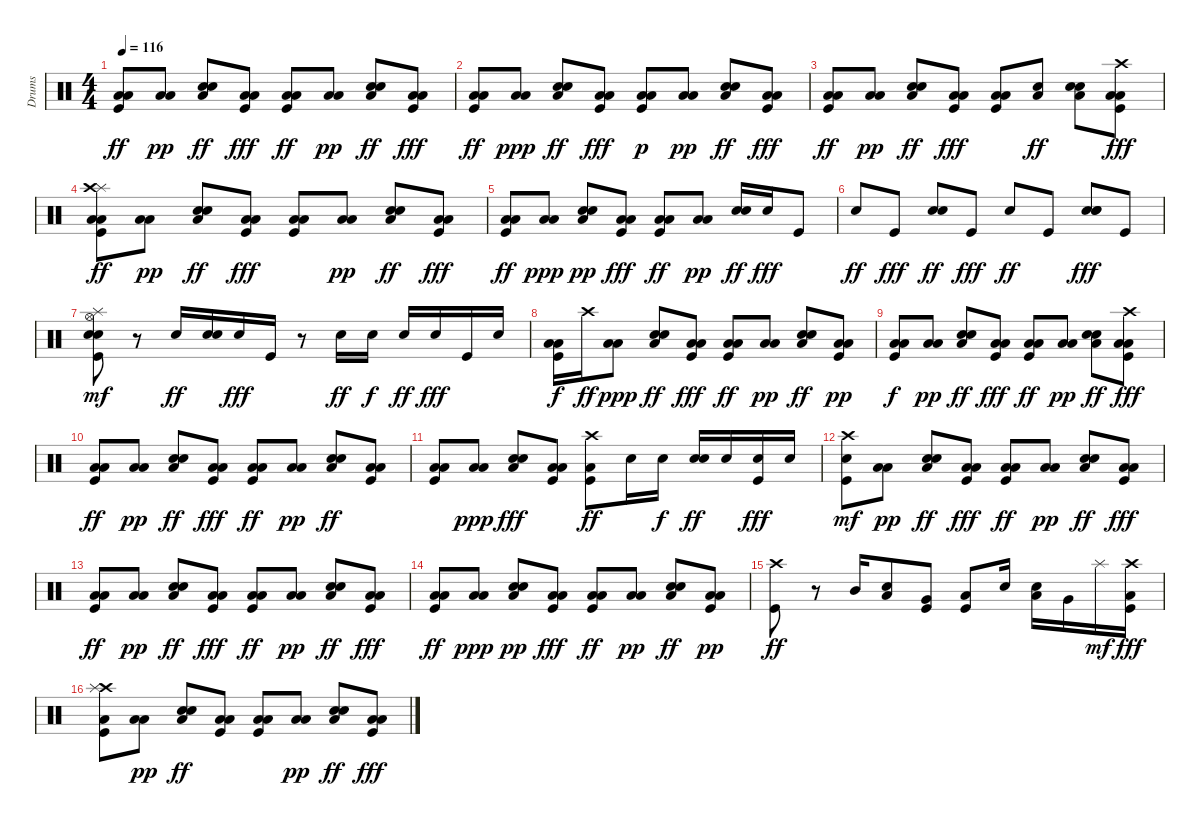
\track ("Drums" "Drums") {instrument percussion}
\staff {score}
\articulation defaults
\ts (4 4)
\tempo 116
\clef neutral
\ks c
("Low Tom (hit)" "Low Floor Tom (hit)" "Kick (hit)").8{dy ff} ("Low Tom (hit)" "Low Floor Tom (hit)").8{dy pp} ("Low Floor Tom (hit)" "Hand Clap (hit)" "Snare (hit) 2").8{dy ff} ("Low Tom (hit)" "Low Floor Tom (hit)" "Kick (hit)").8{dy fff} ("Low Tom (hit)" "Low Floor Tom (hit)" "Kick (hit)").8{dy ff} ("Low Floor Tom (hit)" "Low Tom (hit)").8{dy pp} ("Low Floor Tom (hit)" "Hand Clap (hit)" "Snare (hit) 2").8{dy ff} ("Low Tom (hit)" "Low Floor Tom (hit)" "Kick (hit)").8{dy fff} |
("Low Tom (hit)" "Low Floor Tom (hit)" "Kick (hit)").8{dy ff} ("Low Floor Tom (hit)" "Low Tom (hit)").8{dy ppp} ("Low Floor Tom (hit)" "Hand Clap (hit)" "Snare (hit) 2").8{dy ff} ("Low Tom (hit)" "Low Floor Tom (hit)" "Kick (hit)").8{dy fff} ("Kick (hit)" "Low Tom (hit)" "Low Floor Tom (hit)").8{dy p} ("Low Tom (hit)" "Low Floor Tom (hit)").8{dy pp} ("Low Floor Tom (hit)" "Hand Clap (hit)" "Snare (hit) 2").8{dy ff} ("Low Tom (hit)" "Low Floor Tom (hit)" "Kick (hit)").8{dy fff} |
("Low Tom (hit)" "Low Floor Tom (hit)" "Kick (hit)").8{dy ff} ("Low Tom (hit)" "Low Floor Tom (hit)").8{dy pp} ("Hand Clap (hit)" "Low Floor Tom (hit)" "Snare (hit) 2").8{dy ff} ("Low Tom (hit)" "Low Floor Tom (hit)" "Kick (hit)").8{dy fff} ("Low Tom (hit)" "Low Floor Tom (hit)" "Kick (hit)").8 ("Low Floor Tom (hit)" "Snare (hit) 2").8{dy ff} ("Low Floor Tom (hit)" "Hand Clap (hit)" "Snare (hit) 2").8 ("Crash high (hit)" "Low Tom (hit)" "Low Floor Tom (hit)" "Kick (hit)").8{dy fff} |
("Splash (hit)" "Crash high (hit)" "Low Tom (hit)" "Low Floor Tom (hit)" "Kick (hit)").8{dy ff} ("Low Tom (hit)" "Low Floor Tom (hit)").8{dy pp} ("Hand Clap (hit)" "Low Floor Tom (hit)" "Snare (hit) 2").8{dy ff} ("Low Tom (hit)" "Low Floor Tom (hit)" "Kick (hit)").8{dy fff} ("Low Tom (hit)" "Low Floor Tom (hit)" "Kick (hit)").8 ("Low Floor Tom (hit)" "Low Tom (hit)").8{dy pp} ("Low Floor Tom (hit)" "Hand Clap (hit)" "Snare (hit) 2").8{dy ff} ("Low Tom (hit)" "Low Floor Tom (hit)" "Kick (hit)").8{dy fff} |
("Low Tom (hit)" "Low Floor Tom (hit)" "Kick (hit)").8{dy ff} ("Low Floor Tom (hit)" "Low Tom (hit)").8{dy ppp} ("Hand Clap (hit)" "Snare (hit) 2" "Low Floor Tom (hit)").8{dy pp} ("Low Tom (hit)" "Low Floor Tom (hit)" "Kick (hit)").8{dy fff} ("Low Tom (hit)" "Low Floor Tom (hit)" "Kick (hit)").8{dy ff} ("Low Tom (hit)" "Low Floor Tom (hit)").8{dy pp} ("Hand Clap (hit)" "Snare (hit) 2").16{dy ff} "Snare (hit) 2".16{dy fff} "Kick (hit)".8 |
"Snare (hit) 2".8{dy ff} "Kick (hit)".8{dy fff} ("Hand Clap (hit)" "Snare (hit) 2").8{dy ff} "Kick (hit)".8{dy fff} "Snare (hit) 2".8{dy ff} "Kick (hit)".8 ("Snare (hit) 2" "Hand Clap (hit)" "Snare (hit) 2").8{dy fff} "Kick (hit)".8 |
("Electric Snare (hit)" "Snare (hit) 2" "Kick (hit)" "Hi-Hat (open)" "Splash (hit)").8{dy mf} r.8 "Snare (hit) 2".16{dy ff} ("Snare (hit) 2" "Hand Clap (hit)").16 "Snare (hit) 2".16{dy fff} "Kick (hit)".16 r.8 "Snare (hit) 2".16{dy ff} "Snare (hit) 2".16{dy f} "Hand Clap (hit)".16{dy ff} "Snare (hit) 2".16{dy fff} "Kick (hit)".16 "Snare (hit) 2".16 |
("Low Tom (hit)" "Low Floor Tom (hit)" "Kick (hit)").16{dy f} "Crash high (hit)".16{dy ff} ("Low Floor Tom (hit)" "Low Tom (hit)").8{dy ppp} ("Snare (hit) 2" "Low Floor Tom (hit)" "Hand Clap (hit)").8{dy ff} ("Low Tom (hit)" "Low Floor Tom (hit)" "Kick (hit)").8{dy fff} ("Low Tom (hit)" "Low Floor Tom (hit)" "Kick (hit)").8{dy ff} ("Low Tom (hit)" "Low Floor Tom (hit)").8{dy pp} ("Low Floor Tom (hit)" "Hand Clap (hit)" "Snare (hit) 2").8{dy ff} ("Kick (hit)" "Low Tom (hit)" "Low Floor Tom (hit)").8{dy pp} |
("Kick (hit)" "Low Tom (hit)" "Low Floor Tom (hit)").8{dy f} ("Low Tom (hit)" "Low Floor Tom (hit)").8{dy pp} ("Snare (hit) 2" "Low Floor Tom (hit)" "Hand Clap (hit)").8{dy ff} ("Low Tom (hit)" "Low Floor Tom (hit)" "Kick (hit)").8{dy fff} ("Low Tom (hit)" "Low Floor Tom (hit)" "Kick (hit)").8{dy ff} ("Low Tom (hit)" "Low Floor Tom (hit)").8{dy pp} ("Low Floor Tom (hit)" "Hand Clap (hit)" "Snare (hit) 2").8{dy ff} ("Low Tom (hit)" "Low Floor Tom (hit)" "Kick (hit)" "Crash high (hit)").8{dy fff} |
("Low Tom (hit)" "Low Floor Tom (hit)" "Kick (hit)").8{dy ff} ("Low Tom (hit)" "Low Floor Tom (hit)").8{dy pp} ("Snare (hit) 2" "Low Floor Tom (hit)" "Hand Clap (hit)").8{dy ff} ("Low Tom (hit)" "Low Floor Tom (hit)" "Kick (hit)").8{dy fff} ("Low Tom (hit)" "Low Floor Tom (hit)" "Kick (hit)").8{dy ff} ("Low Floor Tom (hit)" "Low Tom (hit)").8{dy pp} ("Low Floor Tom (hit)" "Hand Clap (hit)" "Snare (hit) 2").8{dy ff} ("Low Tom (hit)" "Low Floor Tom (hit)" "Kick (hit)").8 |
("Low Tom (hit)" "Low Floor Tom (hit)" "Kick (hit)").8 ("Low Floor Tom (hit)" "Low Tom (hit)").8{dy ppp} ("Snare (hit) 2" "Low Floor Tom (hit)" "Hand Clap (hit)").8{dy fff} ("Low Tom (hit)" "Low Floor Tom (hit)" "Kick (hit)").8 ("Low Tom (hit)" "Crash high (hit)" "Kick (hit)").8{dy ff} "Snare (hit) 2".16 "Snare (hit) 2".16{dy f} ("Hand Clap (hit)" "Snare (hit) 2").16{dy ff} "Snare (hit) 2".16 ("Kick (hit)" "Snare (hit) 2").16{dy fff} "Snare (hit) 2".16 |
("Snare (hit) 2" "Kick (hit)" "Crash high (hit)").8{dy mf} ("Low Tom (hit)" "Low Floor Tom (hit)").8{dy pp} ("Snare (hit) 2" "Low Floor Tom (hit)" "Hand Clap (hit)").8{dy ff} ("Low Tom (hit)" "Low Floor Tom (hit)" "Kick (hit)").8{dy fff} ("Low Tom (hit)" "Low Floor Tom (hit)" "Kick (hit)").8{dy ff} ("Low Tom (hit)" "Low Floor Tom (hit)").8{dy pp} ("Low Floor Tom (hit)" "Hand Clap (hit)" "Snare (hit) 2").8{dy ff} ("Low Tom (hit)" "Low Floor Tom (hit)" "Kick (hit)").8{dy fff} |
("Low Tom (hit)" "Low Floor Tom (hit)" "Kick (hit)").8{dy ff} ("Low Tom (hit)" "Low Floor Tom (hit)").8{dy pp} ("Snare (hit) 2" "Low Floor Tom (hit)" "Hand Clap (hit)").8{dy ff} ("Low Tom (hit)" "Low Floor Tom (hit)" "Kick (hit)").8{dy fff} ("Low Tom (hit)" "Low Floor Tom (hit)" "Kick (hit)").8{dy ff} ("Low Floor Tom (hit)" "Low Tom (hit)").8{dy pp} ("Snare (hit) 2" "Low Floor Tom (hit)" "Hand Clap (hit)").8{dy ff} ("Low Tom (hit)" "Low Floor Tom (hit)" "Kick (hit)").8{dy fff} |
("Low Tom (hit)" "Low Floor Tom (hit)" "Kick (hit)").8{dy ff} ("Low Floor Tom (hit)" "Low Tom (hit)").8{dy ppp} ("Hand Clap (hit)" "Snare (hit) 2" "Low Floor Tom (hit)").8{dy pp} ("Low Tom (hit)" "Low Floor Tom (hit)" "Kick (hit)").8{dy fff} ("Low Tom (hit)" "Low Floor Tom (hit)" "Kick (hit)").8{dy ff} ("Low Tom (hit)" "Low Floor Tom (hit)").8{dy pp} ("Low Floor Tom (hit)" "Hand Clap (hit)" "Snare (hit) 2").8{dy ff} ("Kick (hit)" "Low Tom (hit)" "Low Floor Tom (hit)").8{dy pp} |
("Crash high (hit)" "Kick (hit)").8{dy ff} r.8 "Mid Tom (hit)".16 ("Hand Clap (hit)" "Low Tom (hit)").8 ("Kick (hit)" "Very Low Tom (hit)").8 ("Kick (hit)" "Low Floor Tom (hit)").8 "Snare (hit) 2".16 ("Hand Clap (hit)" "Low Tom (hit)").16 "Very Low Tom (hit)".16 "Splash (hit)".16{dy mf} ("Crash high (hit)" "Kick (hit)" "Low Floor Tom (hit)").16{dy fff} |
("Crash high (hit)" "Splash (hit)" "Low Tom (hit)" "Kick (hit)").8 ("Low Tom (hit)" "Low Floor Tom (hit)").8{dy pp} ("Snare (hit) 2" "Low Floor Tom (hit)" "Hand Clap (hit)").8{dy ff} ("Low Tom (hit)" "Low Floor Tom (hit)" "Kick (hit)").8 ("Low Tom (hit)" "Low Floor Tom (hit)" "Kick (hit)").8 ("Low Floor Tom (hit)" "Low Tom (hit)").8{dy pp} ("Snare (hit) 2" "Low Floor Tom (hit)" "Hand Clap (hit)").8{dy ff} ("Low Tom (hit)" "Low Floor Tom (hit)" "Kick (hit)").8{dy fff}
